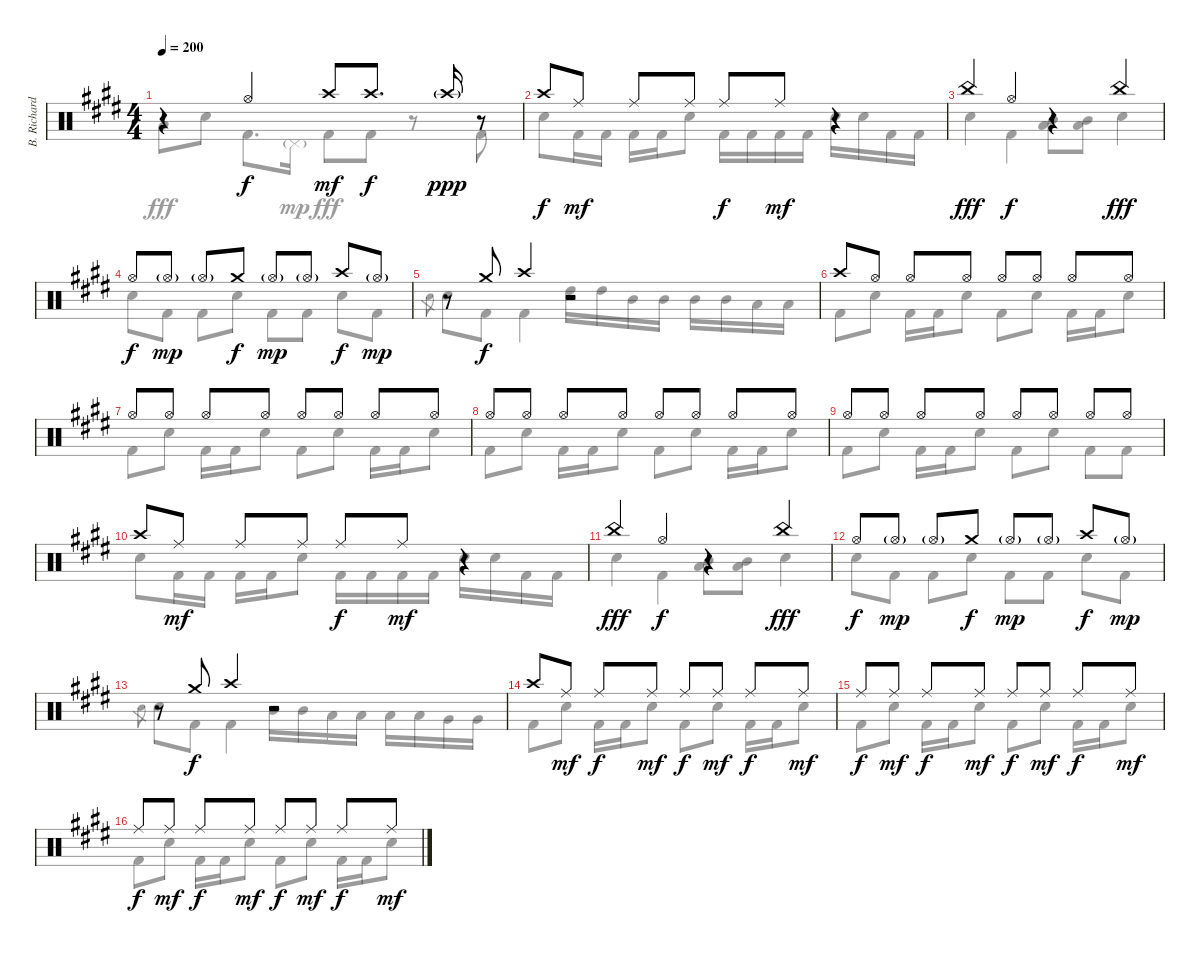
\track ("B. Richardson Drums" "B. Richard") {instrument percussion}
\staff {score}
\articulation defaults
\voice
\ts (4 4)
\tempo 200
\clef neutral
\ks c#minor
r.4{dy f} "Hi-Hat (open)".4 "Crash high (hit)".8{dy mf} "Crash high (hit)".8{d dy f} "Crash high (hit)"{g}.16{dy ppp} r.8 |
"Crash high (hit)".8{dy f} "Ride (middle)".8{dy mf} "Ride (middle)".8 "Ride (middle)".8 "Ride (middle)".8{dy f} "Ride (middle)".8{dy mf} r.4 |
"China (hit)".4{dy fff} "Hi-Hat (open)".4{dy f} r.4 "China (hit)".4{dy fff} |
"Hi-Hat (open)".8{dy f} "Hi-Hat (open)"{g}.8{dy mp} "Hi-Hat (open)"{g}.8 "Crash medium (hit)".8{dy f} "Hi-Hat (open)"{g}.8{dy mp} "Hi-Hat (open)"{g}.8 "Crash high (hit)".8{dy f} "Hi-Hat (open)"{g}.8{dy mp} |
r.8 "Crash medium (hit)".8{dy f} "Crash high (hit)".4 r.2 |
"Crash high (hit)".8 "Hi-Hat (open)".8 "Hi-Hat (open)".8 "Hi-Hat (open)".8 "Hi-Hat (open)".8 "Hi-Hat (open)".8 "Hi-Hat (open)".8 "Hi-Hat (open)".8 |
"Hi-Hat (open)".8 "Hi-Hat (open)".8 "Hi-Hat (open)".8 "Hi-Hat (open)".8 "Hi-Hat (open)".8 "Hi-Hat (open)".8 "Hi-Hat (open)".8 "Hi-Hat (open)".8 |
"Hi-Hat (open)".8 "Hi-Hat (open)".8 "Hi-Hat (open)".8 "Hi-Hat (open)".8 "Hi-Hat (open)".8 "Hi-Hat (open)".8 "Hi-Hat (open)".8 "Hi-Hat (open)".8 |
"Hi-Hat (open)".8 "Hi-Hat (open)".8 "Hi-Hat (open)".8 "Hi-Hat (open)".8 "Hi-Hat (open)".8 "Hi-Hat (open)".8 "Hi-Hat (open)".8 "Hi-Hat (open)".8 |
"Crash high (hit)".8 "Ride (middle)".8{dy mf} "Ride (middle)".8 "Ride (middle)".8 "Ride (middle)".8{dy f} "Ride (middle)".8{dy mf} r.4 |
"China (hit)".4{dy fff} "Hi-Hat (open)".4{dy f} r.4 "China (hit)".4{dy fff} |
"Hi-Hat (open)".8{dy f} "Hi-Hat (open)"{g}.8{dy mp} "Hi-Hat (open)"{g}.8 "Crash medium (hit)".8{dy f} "Hi-Hat (open)"{g}.8{dy mp} "Hi-Hat (open)"{g}.8 "Crash high (hit)".8{dy f} "Hi-Hat (open)"{g}.8{dy mp} |
r.8 "Crash medium (hit)".8{dy f} "Crash high (hit)".4 r.2 |
"Crash high (hit)".8 "Ride (middle)".8{dy mf} "Ride (middle)".8{dy f} "Ride (middle)".8{dy mf} "Ride (middle)".8{dy f} "Ride (middle)".8{dy mf} "Ride (middle)".8{dy f} "Ride (middle)".8{dy mf} |
"Ride (middle)".8{dy f} "Ride (middle)".8{dy mf} "Ride (middle)".8{dy f} "Ride (middle)".8{dy mf} "Ride (middle)".8{dy f} "Ride (middle)".8{dy mf} "Ride (middle)".8{dy f} "Ride (middle)".8{dy mf} |
"Ride (middle)".8{dy f} "Ride (middle)".8{dy mf} "Ride (middle)".8{dy f} "Ride (middle)".8{dy mf} "Ride (middle)".8{dy f} "Ride (middle)".8{dy mf} "Ride (middle)".8{dy f} "Ride (middle)".8{dy mf}
\voice
\clef neutral
\ottava regular
\simile none
\ks c#minor "Low Tom (hit)".8{dy fff} "Electric Snare (hit)".8 "Kick (hit) 2".8{d} "Pedal Hi-Hat (hit)"{g}.16{dy mp} "Kick (hit) 2".8{dy fff} "Kick (hit) 2".8
r.8 "Kick (hit) 2".8 |
"Electric Snare (hit)".8 "Kick (hit) 2".16 "Kick (hit) 2".16 "Kick (hit) 2".16 "Kick (hit) 2".16 "Electric Snare (hit)".8 "Kick (hit) 2".16 "Kick (hit) 2".16 "Kick (hit) 2".16 "Kick (hit) 2".16 "Electric Snare (hit)".16 "Electric Snare (hit)".16 "Kick (hit) 2".16 "Kick (hit) 2".16 |
"Electric Snare (hit)".4 "Kick (hit) 2".4 ("Mid Tom (hit)" "Low Tom (hit)").8 ("Mid Tom (hit)" "Low Tom (hit)").8 "Electric Snare (hit)".4 |
"Electric Snare (hit)".8 "Kick (hit) 2".8 "Kick (hit) 2".8 "Electric Snare (hit)".8 "Kick (hit) 2".8 "Kick (hit) 2".8 "Electric Snare (hit)".8 "Kick (hit) 2".8 |
"Electric Snare (hit)".8{gr} "Electric Snare (hit)".8 "Kick (hit) 2".8 "Kick (hit) 2".4 "High Tom (hit)".16 "High Tom (hit)".16 "Mid Tom (hit)".16 "Mid Tom (hit)".16 "Mid Tom (hit)".16 "Mid Tom (hit)".16 "Low Tom (hit)".16 "Low Tom (hit)".16 |
"Kick (hit) 2".8 "Electric Snare (hit)".8 "Kick (hit) 2".16 "Kick (hit) 2".16 "Electric Snare (hit)".8 "Kick (hit) 2".8 "Electric Snare (hit)".8 "Kick (hit) 2".16 "Kick (hit) 2".16 "Electric Snare (hit)".8 |
"Kick (hit) 2".8 "Electric Snare (hit)".8 "Kick (hit) 2".16 "Kick (hit) 2".16 "Electric Snare (hit)".8 "Kick (hit) 2".8 "Electric Snare (hit)".8 "Kick (hit) 2".16 "Kick (hit) 2".16 "Electric Snare (hit)".8 |
"Kick (hit) 2".8 "Electric Snare (hit)".8 "Kick (hit) 2".16 "Kick (hit) 2".16 "Electric Snare (hit)".8 "Kick (hit) 2".8 "Electric Snare (hit)".8 "Kick (hit) 2".16 "Kick (hit) 2".16 "Electric Snare (hit)".8 |
"Kick (hit) 2".8 "Electric Snare (hit)".8 "Kick (hit) 2".16 "Kick (hit) 2".16 "Electric Snare (hit)".8 "Kick (hit) 2".8 "Electric Snare (hit)".8 "Kick (hit) 2".8 "Kick (hit) 2".8 |
"Electric Snare (hit)".8 "Kick (hit) 2".16 "Kick (hit) 2".16 "Kick (hit) 2".16 "Kick (hit) 2".16 "Electric Snare (hit)".8 "Kick (hit) 2".16 "Kick (hit) 2".16 "Kick (hit) 2".16 "Kick (hit) 2".16 "Electric Snare (hit)".16 "Electric Snare (hit)".16 "Kick (hit) 2".16 "Kick (hit) 2".16 |
"Electric Snare (hit)".4 "Kick (hit) 2".4 ("Mid Tom (hit)" "Low Tom (hit)").8 ("Mid Tom (hit)" "Low Tom (hit)").8 "Electric Snare (hit)".4 |
"Electric Snare (hit)".8 "Kick (hit) 2".8 "Kick (hit) 2".8 "Electric Snare (hit)".8 "Kick (hit) 2".8 "Kick (hit) 2".8 "Electric Snare (hit)".8 "Kick (hit) 2".8 |
"Electric Snare (hit)".8{gr} "Electric Snare (hit)".8 "Kick (hit) 2".8 "Kick (hit) 2".4 "Mid Tom (hit)".16 "Mid Tom (hit)".16 "Low Tom (hit)".16 "Low Tom (hit)".16 "Low Tom (hit)".16 "Low Tom (hit)".16 "Very Low Tom (hit)".16 "Very Low Tom (hit)".16 |
"Kick (hit) 2".8 "Electric Snare (hit)".8 "Kick (hit) 2".16 "Kick (hit) 2".16 "Electric Snare (hit)".8 "Kick (hit) 2".8 "Electric Snare (hit)".8 "Kick (hit) 2".16 "Kick (hit) 2".16 "Electric Snare (hit)".8 |
"Kick (hit) 2".8 "Electric Snare (hit)".8 "Kick (hit) 2".16 "Kick (hit) 2".16 "Electric Snare (hit)".8 "Kick (hit) 2".8 "Electric Snare (hit)".8 "Kick (hit) 2".16 "Kick (hit) 2".16 "Electric Snare (hit)".8 |
"Kick (hit) 2".8 "Electric Snare (hit)".8 "Kick (hit) 2".16 "Kick (hit) 2".16 "Electric Snare (hit)".8 "Kick (hit) 2".8 "Electric Snare (hit)".8 "Kick (hit) 2".16 "Kick (hit) 2".16 "Electric Snare (hit)".8
